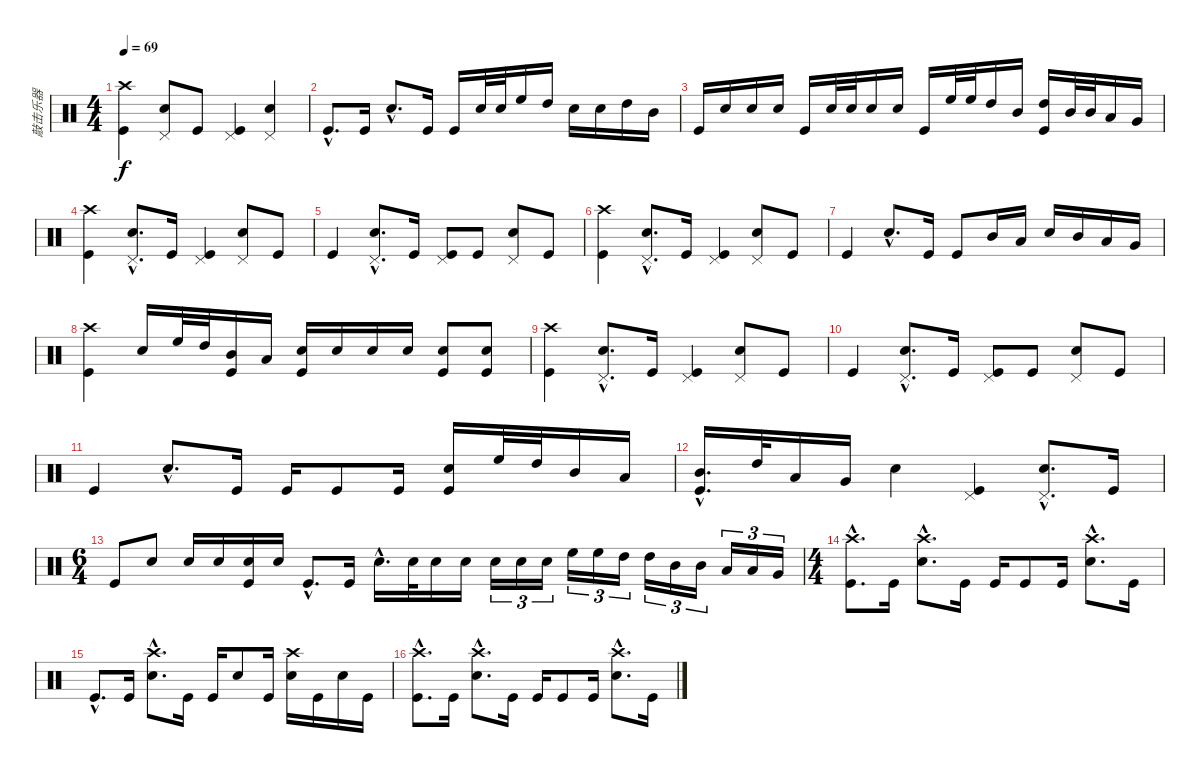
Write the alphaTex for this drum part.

\track ("敲击乐器" "敲击乐器") {instrument percussion}
\staff {score}
\articulation defaults
\ts (4 4)
\tempo 69
\clef neutral
\ks c
("Crash high (hit)" "Kick (hit)").4{dy f} ("Pedal Hi-Hat (hit)" "Metronome (bell)").8 "Kick (hit)".8 ("Pedal Hi-Hat (hit)" "Kick (hit)").4 ("Pedal Hi-Hat (hit)" "Metronome (bell)").4 |
"Kick (hit)"{hac}.8{d} "Kick (hit)".16 "Metronome (bell)"{hac}.8{d} "Kick (hit)".16 "Kick (hit)".16 "Metronome (bell)".32 "Metronome (bell)".32 "High Floor Tom (hit)".16 "High Tom (hit)".16 "Metronome (bell)".16 "Metronome (bell)".16 "High Tom (hit)".16 "Mid Tom (hit)".16 |
"Kick (hit)".16 "Metronome (bell)".16 "Metronome (bell)".16 "Metronome (bell)".16 "Kick (hit)".16 "Metronome (bell)".32 "Metronome (bell)".32 "Metronome (bell)".16 "Metronome (bell)".16 "Kick (hit)".16 "High Floor Tom (hit)".32 "High Floor Tom (hit)".32 "High Tom (hit)".16 "Mid Tom (hit)".16 ("High Tom (hit)" "Kick (hit)").16 "Mid Tom (hit)".32 "Mid Tom (hit)".32 "Low Tom (hit)".16 "Very Low Tom (hit)".16 |
("Crash high (hit)" "Kick (hit)").4 ("Pedal Hi-Hat (hit)"{hac} "Metronome (bell)"{hac}).8{d} "Kick (hit)".16 ("Pedal Hi-Hat (hit)" "Kick (hit)").4 ("Pedal Hi-Hat (hit)" "Metronome (bell)").8 "Kick (hit)".8 |
"Kick (hit)".4 ("Pedal Hi-Hat (hit)"{hac} "Metronome (bell)"{hac}).8{d} "Kick (hit)".16 ("Pedal Hi-Hat (hit)" "Kick (hit)").8 "Kick (hit)".8 ("Pedal Hi-Hat (hit)" "Metronome (bell)").8 "Kick (hit)".8 |
("Crash high (hit)" "Kick (hit)").4 ("Pedal Hi-Hat (hit)"{hac} "Metronome (bell)"{hac}).8{d} "Kick (hit)".16 ("Pedal Hi-Hat (hit)" "Kick (hit)").4 ("Pedal Hi-Hat (hit)" "Metronome (bell)").8 "Kick (hit)".8 |
"Kick (hit)".4 "Metronome (bell)"{hac}.8{d} "Kick (hit)".16 "Kick (hit)".8 "Mid Tom (hit)".16 "Low Tom (hit)".16 "Metronome (bell)".16 "Mid Tom (hit)".16 "Low Tom (hit)".16 "Very Low Tom (hit)".16 |
("Crash high (hit)" "Kick (hit)").4 "Metronome (bell)".16 "High Floor Tom (hit)".32 "High Tom (hit)".32 ("Mid Tom (hit)" "Kick (hit)").16 "Low Tom (hit)".16 ("Metronome (bell)" "Kick (hit)").16 "Metronome (bell)".16 "Metronome (bell)".16 "Metronome (bell)".16 ("Metronome (bell)" "Kick (hit)").8 ("Metronome (bell)" "Kick (hit)").8 |
("Crash high (hit)" "Kick (hit)").4 ("Pedal Hi-Hat (hit)"{hac} "Metronome (bell)"{hac}).8{d} "Kick (hit)".16 ("Pedal Hi-Hat (hit)" "Kick (hit)").4 ("Pedal Hi-Hat (hit)" "Metronome (bell)").8 "Kick (hit)".8 |
"Kick (hit)".4 ("Pedal Hi-Hat (hit)"{hac} "Metronome (bell)"{hac}).8{d} "Kick (hit)".16 ("Pedal Hi-Hat (hit)" "Kick (hit)").8 "Kick (hit)".8 ("Pedal Hi-Hat (hit)" "Metronome (bell)").8 "Kick (hit)".8 |
"Kick (hit)".4 "Metronome (bell)"{hac}.8{d} "Kick (hit)".16 "Kick (hit)".16 "Kick (hit)".8 "Kick (hit)".16 ("Metronome (bell)" "Kick (hit)").16 "High Floor Tom (hit)".32 "High Tom (hit)".32 "Mid Tom (hit)".16 "Low Tom (hit)".16 |
("Mid Tom (hit)"{hac} "Kick (hit)"{hac}).16{d} "High Tom (hit)".32 "Low Tom (hit)".16 "Very Low Tom (hit)".16 "Metronome (bell)".4 ("Pedal Hi-Hat (hit)" "Kick (hit)").4 ("Pedal Hi-Hat (hit)"{hac} "Metronome (bell)"{hac}).8{d} "Kick (hit)".16 |
\ts (6 4)
"Kick (hit)".8 "Metronome (bell)".8 "Metronome (bell)".16 "Metronome (bell)".16 ("Metronome (bell)" "Kick (hit)").16 "Metronome (bell)".16 "Kick (hit)"{hac}.8{d} "Kick (hit)".16 "Metronome (bell)"{hac}.16{d} "Metronome (bell)".32 "Metronome (bell)".16 "Metronome (bell)".16 "Metronome (bell)".16{tu (3 2)} "Metronome (bell)".16{tu (3 2)} "Metronome (bell)".16{tu (3 2)} "High Floor Tom (hit)".16{tu (3 2)} "High Floor Tom (hit)".16{tu (3 2)} "High Tom (hit)".16{tu (3 2)} "High Tom (hit)".16{tu (3 2)} "Mid Tom (hit)".16{tu (3 2)} "Mid Tom (hit)".16{tu (3 2)} "Low Tom (hit)".16{tu (3 2)} "Low Tom (hit)".16{tu (3 2)} "Very Low Tom (hit)".16{tu (3 2)} |
\ts (4 4)
("Crash high (hit)"{hac} "Kick (hit)"{hac}).8{d} "Kick (hit)".16 ("Crash high (hit)"{hac} "Metronome (bell)"{hac}).8{d} "Kick (hit)".16 "Kick (hit)".16 "Kick (hit)".8 "Kick (hit)".16 ("Crash high (hit)"{hac} "Metronome (bell)"{hac}).8{d} "Kick (hit)".16 |
"Kick (hit)"{hac}.8{d} "Kick (hit)".16 ("Crash high (hit)"{hac} "Metronome (bell)"{hac}).8{d} "Kick (hit)".16 "Kick (hit)".16 "Metronome (bell)".8 "Kick (hit)".16 ("Crash high (hit)" "Metronome (bell)").16 "Kick (hit)".16 "Metronome (bell)".16 "Kick (hit)".16 |
("Crash high (hit)"{hac} "Kick (hit)"{hac}).8{d} "Kick (hit)".16 ("Crash high (hit)"{hac} "Metronome (bell)"{hac}).8{d} "Kick (hit)".16 "Kick (hit)".16 "Kick (hit)".8 "Kick (hit)".16 ("Crash high (hit)"{hac} "Metronome (bell)"{hac}).8{d} "Kick (hit)".16
